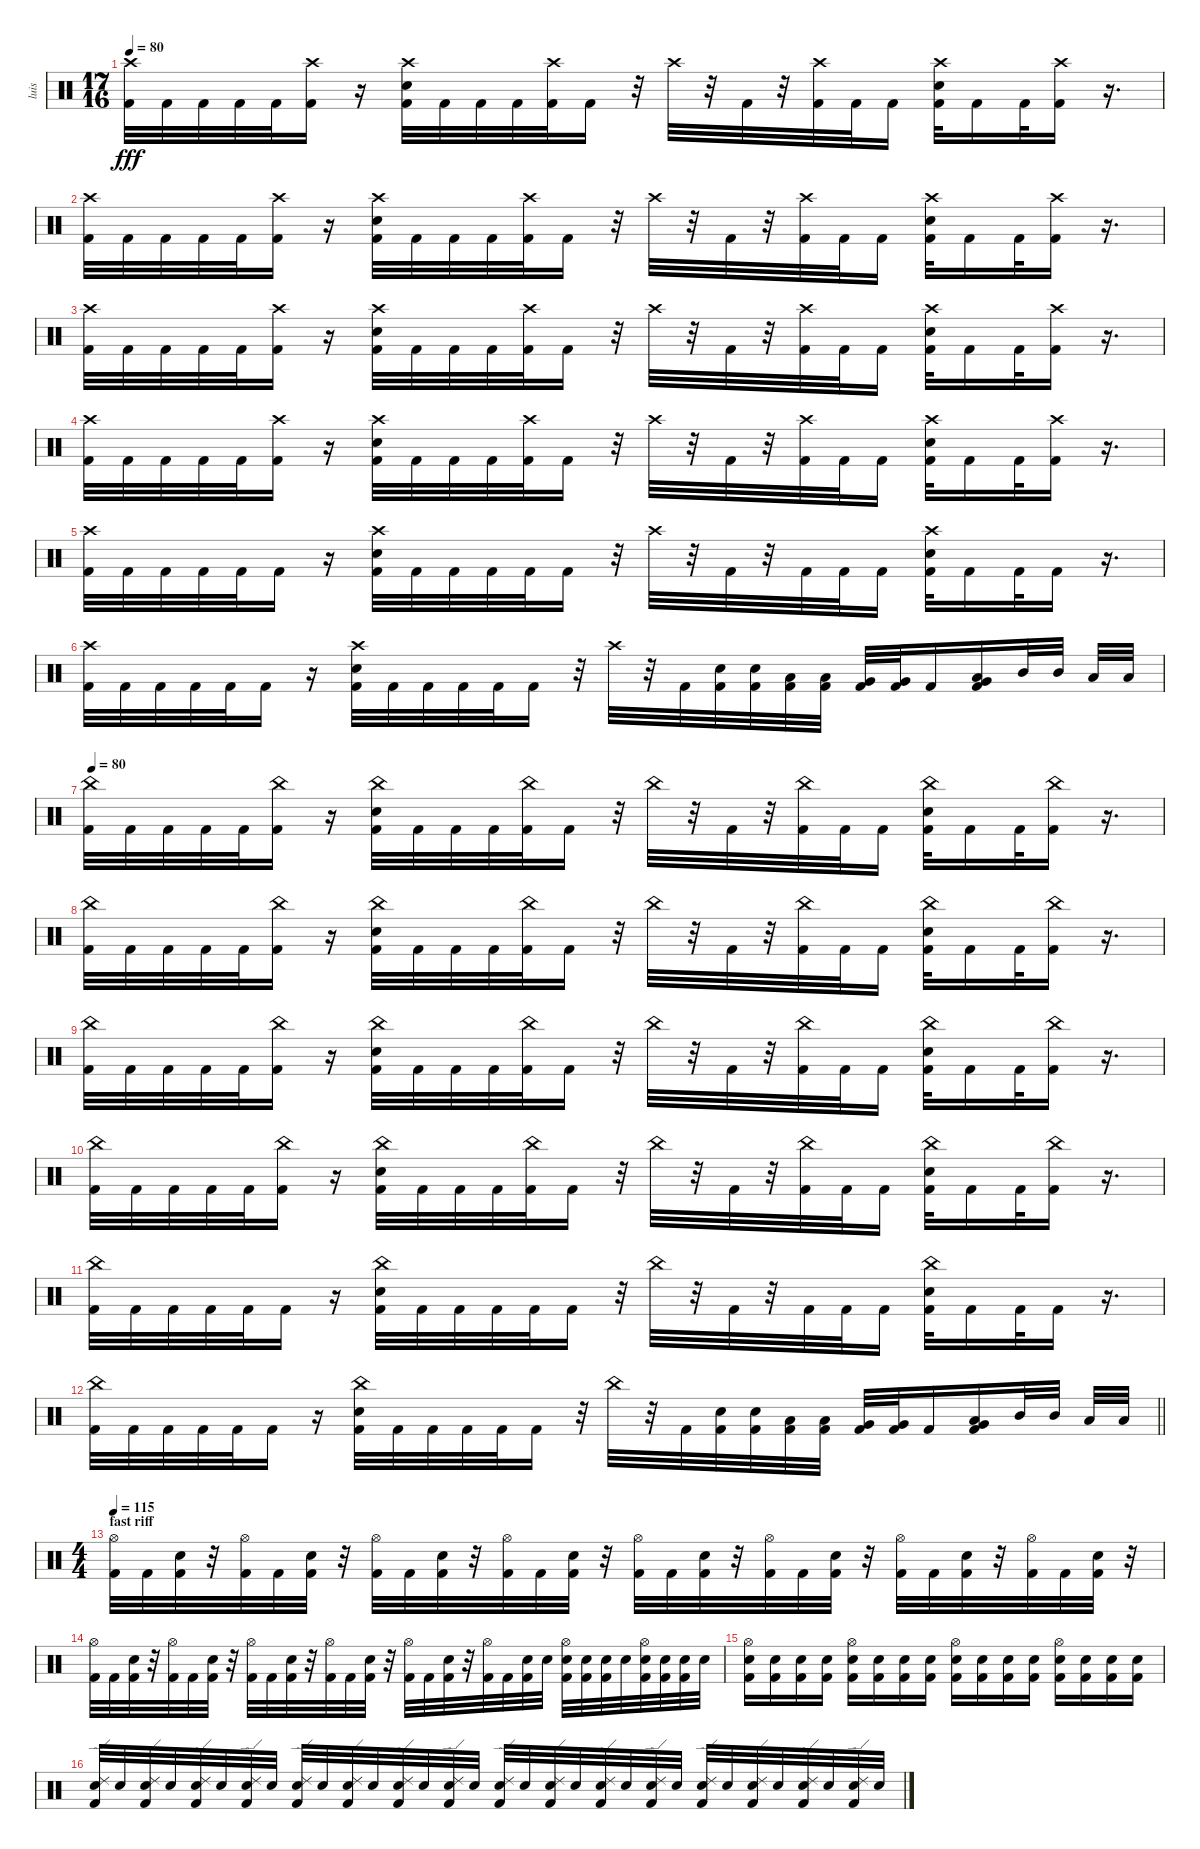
\track ("luis" "luis") {instrument percussion}
\staff {score}
\articulation defaults
\ts (17 16)
\tempo 80
\clef neutral
\ks c
("Crash high (hit)" "Kick (hit) 2").32{dy fff} "Kick (hit) 2".32 "Kick (hit) 2".32 "Kick (hit) 2".32 "Kick (hit) 2".32 ("Crash high (hit)" "Kick (hit) 2").16 r.16 ("Crash high (hit)" "Electric Snare (hit)" "Kick (hit) 2").32 "Kick (hit) 2".32 "Kick (hit) 2".32 "Kick (hit) 2".32 ("Crash high (hit)" "Kick (hit) 2").32 "Kick (hit) 2".16 r.32 "Crash high (hit)".32 r.32 "Kick (hit) 2".32 r.32 ("Crash high (hit)" "Kick (hit) 2").32 "Kick (hit) 2".32 "Kick (hit) 2".16 ("Crash high (hit)" "Electric Snare (hit)" "Kick (hit) 2").32 "Kick (hit) 2".16 "Kick (hit) 2".32 ("Crash high (hit)" "Kick (hit) 2").16 r.16{d} |
("Crash high (hit)" "Kick (hit) 2").32 "Kick (hit) 2".32 "Kick (hit) 2".32 "Kick (hit) 2".32 "Kick (hit) 2".32 ("Crash high (hit)" "Kick (hit) 2").16 r.16 ("Crash high (hit)" "Electric Snare (hit)" "Kick (hit) 2").32 "Kick (hit) 2".32 "Kick (hit) 2".32 "Kick (hit) 2".32 ("Crash high (hit)" "Kick (hit) 2").32 "Kick (hit) 2".16 r.32 "Crash high (hit)".32 r.32 "Kick (hit) 2".32 r.32 ("Crash high (hit)" "Kick (hit) 2").32 "Kick (hit) 2".32 "Kick (hit) 2".16 ("Crash high (hit)" "Electric Snare (hit)" "Kick (hit) 2").32 "Kick (hit) 2".16 "Kick (hit) 2".32 ("Crash high (hit)" "Kick (hit) 2").16 r.16{d} |
("Crash high (hit)" "Kick (hit) 2").32 "Kick (hit) 2".32 "Kick (hit) 2".32 "Kick (hit) 2".32 "Kick (hit) 2".32 ("Crash high (hit)" "Kick (hit) 2").16 r.16 ("Crash high (hit)" "Electric Snare (hit)" "Kick (hit) 2").32 "Kick (hit) 2".32 "Kick (hit) 2".32 "Kick (hit) 2".32 ("Crash high (hit)" "Kick (hit) 2").32 "Kick (hit) 2".16 r.32 "Crash high (hit)".32 r.32 "Kick (hit) 2".32 r.32 ("Crash high (hit)" "Kick (hit) 2").32 "Kick (hit) 2".32 "Kick (hit) 2".16 ("Crash high (hit)" "Electric Snare (hit)" "Kick (hit) 2").32 "Kick (hit) 2".16 "Kick (hit) 2".32 ("Crash high (hit)" "Kick (hit) 2").16 r.16{d} |
("Crash high (hit)" "Kick (hit) 2").32 "Kick (hit) 2".32 "Kick (hit) 2".32 "Kick (hit) 2".32 "Kick (hit) 2".32 ("Crash high (hit)" "Kick (hit) 2").16 r.16 ("Crash high (hit)" "Electric Snare (hit)" "Kick (hit) 2").32 "Kick (hit) 2".32 "Kick (hit) 2".32 "Kick (hit) 2".32 ("Crash high (hit)" "Kick (hit) 2").32 "Kick (hit) 2".16 r.32 "Crash high (hit)".32 r.32 "Kick (hit) 2".32 r.32 ("Crash high (hit)" "Kick (hit) 2").32 "Kick (hit) 2".32 "Kick (hit) 2".16 ("Crash high (hit)" "Electric Snare (hit)" "Kick (hit) 2").32 "Kick (hit) 2".16 "Kick (hit) 2".32 ("Crash high (hit)" "Kick (hit) 2").16 r.16{d} |
("Crash high (hit)" "Kick (hit) 2").32 "Kick (hit) 2".32 "Kick (hit) 2".32 "Kick (hit) 2".32 "Kick (hit) 2".32 "Kick (hit) 2".16 r.16 ("Crash high (hit)" "Electric Snare (hit)" "Kick (hit) 2").32 "Kick (hit) 2".32 "Kick (hit) 2".32 "Kick (hit) 2".32 "Kick (hit) 2".32 "Kick (hit) 2".16 r.32 "Crash high (hit)".32 r.32 "Kick (hit) 2".32 r.32 "Kick (hit) 2".32 "Kick (hit) 2".32 "Kick (hit) 2".16 ("Crash high (hit)" "Electric Snare (hit)" "Kick (hit) 2").32 "Kick (hit) 2".16 "Kick (hit) 2".32 "Kick (hit) 2".16 r.16{d} |
("Crash high (hit)" "Kick (hit) 2").32 "Kick (hit) 2".32 "Kick (hit) 2".32 "Kick (hit) 2".32 "Kick (hit) 2".32 "Kick (hit) 2".16 r.16 ("Crash high (hit)" "Electric Snare (hit)" "Kick (hit) 2").32 "Kick (hit) 2".32 "Kick (hit) 2".32 "Kick (hit) 2".32 "Kick (hit) 2".32 "Kick (hit) 2".16 r.32 "Crash high (hit)".32 r.32 "Kick (hit) 2".32 ("Electric Snare (hit)" "Kick (hit) 2").32 ("Electric Snare (hit)" "Kick (hit) 2").32 ("Low Tom (hit)" "Kick (hit) 2").32 ("Low Tom (hit)" "Kick (hit) 2").32 ("Very Low Tom (hit)" "Kick (hit) 2").32 ("Very Low Tom (hit)" "Kick (hit) 2").32 "Kick (hit) 2".16 ("Low Tom (hit)" "Very Low Tom (hit)" "Kick (hit) 2").16 "Mid Tom (hit)".32 "Mid Tom (hit)".32 "Low Tom (hit)".32 "Low Tom (hit)".32 |
\tempo 80
("China (hit)" "Kick (hit) 2").32 "Kick (hit) 2".32 "Kick (hit) 2".32 "Kick (hit) 2".32 "Kick (hit) 2".32 ("China (hit)" "Kick (hit) 2").16 r.16 ("China (hit)" "Electric Snare (hit)" "Kick (hit) 2").32 "Kick (hit) 2".32 "Kick (hit) 2".32 "Kick (hit) 2".32 ("China (hit)" "Kick (hit) 2").32 "Kick (hit) 2".16 r.32 "China (hit)".32 r.32 "Kick (hit) 2".32 r.32 ("China (hit)" "Kick (hit) 2").32 "Kick (hit) 2".32 "Kick (hit) 2".16 ("China (hit)" "Electric Snare (hit)" "Kick (hit) 2").32 "Kick (hit) 2".16 "Kick (hit) 2".32 ("China (hit)" "Kick (hit) 2").16 r.16{d} |
("China (hit)" "Kick (hit) 2").32 "Kick (hit) 2".32 "Kick (hit) 2".32 "Kick (hit) 2".32 "Kick (hit) 2".32 ("China (hit)" "Kick (hit) 2").16 r.16 ("China (hit)" "Electric Snare (hit)" "Kick (hit) 2").32 "Kick (hit) 2".32 "Kick (hit) 2".32 "Kick (hit) 2".32 ("China (hit)" "Kick (hit) 2").32 "Kick (hit) 2".16 r.32 "China (hit)".32 r.32 "Kick (hit) 2".32 r.32 ("China (hit)" "Kick (hit) 2").32 "Kick (hit) 2".32 "Kick (hit) 2".16 ("China (hit)" "Electric Snare (hit)" "Kick (hit) 2").32 "Kick (hit) 2".16 "Kick (hit) 2".32 ("China (hit)" "Kick (hit) 2").16 r.16{d} |
("China (hit)" "Kick (hit) 2").32 "Kick (hit) 2".32 "Kick (hit) 2".32 "Kick (hit) 2".32 "Kick (hit) 2".32 ("China (hit)" "Kick (hit) 2").16 r.16 ("China (hit)" "Electric Snare (hit)" "Kick (hit) 2").32 "Kick (hit) 2".32 "Kick (hit) 2".32 "Kick (hit) 2".32 ("China (hit)" "Kick (hit) 2").32 "Kick (hit) 2".16 r.32 "China (hit)".32 r.32 "Kick (hit) 2".32 r.32 ("China (hit)" "Kick (hit) 2").32 "Kick (hit) 2".32 "Kick (hit) 2".16 ("China (hit)" "Electric Snare (hit)" "Kick (hit) 2").32 "Kick (hit) 2".16 "Kick (hit) 2".32 ("China (hit)" "Kick (hit) 2").16 r.16{d} |
("China (hit)" "Kick (hit) 2").32 "Kick (hit) 2".32 "Kick (hit) 2".32 "Kick (hit) 2".32 "Kick (hit) 2".32 ("China (hit)" "Kick (hit) 2").16 r.16 ("China (hit)" "Electric Snare (hit)" "Kick (hit) 2").32 "Kick (hit) 2".32 "Kick (hit) 2".32 "Kick (hit) 2".32 ("China (hit)" "Kick (hit) 2").32 "Kick (hit) 2".16 r.32 "China (hit)".32 r.32 "Kick (hit) 2".32 r.32 ("China (hit)" "Kick (hit) 2").32 "Kick (hit) 2".32 "Kick (hit) 2".16 ("China (hit)" "Electric Snare (hit)" "Kick (hit) 2").32 "Kick (hit) 2".16 "Kick (hit) 2".32 ("China (hit)" "Kick (hit) 2").16 r.16{d} |
("China (hit)" "Kick (hit) 2").32 "Kick (hit) 2".32 "Kick (hit) 2".32 "Kick (hit) 2".32 "Kick (hit) 2".32 "Kick (hit) 2".16 r.16 ("China (hit)" "Electric Snare (hit)" "Kick (hit) 2").32 "Kick (hit) 2".32 "Kick (hit) 2".32 "Kick (hit) 2".32 "Kick (hit) 2".32 "Kick (hit) 2".16 r.32 "China (hit)".32 r.32 "Kick (hit) 2".32 r.32 "Kick (hit) 2".32 "Kick (hit) 2".32 "Kick (hit) 2".16 ("China (hit)" "Electric Snare (hit)" "Kick (hit) 2").32 "Kick (hit) 2".16 "Kick (hit) 2".32 "Kick (hit) 2".16 r.16{d} |
\barLineRight lightlight
("China (hit)" "Kick (hit) 2").32 "Kick (hit) 2".32 "Kick (hit) 2".32 "Kick (hit) 2".32 "Kick (hit) 2".32 "Kick (hit) 2".16 r.16 ("China (hit)" "Electric Snare (hit)" "Kick (hit) 2").32 "Kick (hit) 2".32 "Kick (hit) 2".32 "Kick (hit) 2".32 "Kick (hit) 2".32 "Kick (hit) 2".16 r.32 "China (hit)".32 r.32 "Kick (hit) 2".32 ("Electric Snare (hit)" "Kick (hit) 2").32 ("Electric Snare (hit)" "Kick (hit) 2").32 ("Low Tom (hit)" "Kick (hit) 2").32 ("Low Tom (hit)" "Kick (hit) 2").32 ("Very Low Tom (hit)" "Kick (hit) 2").32 ("Very Low Tom (hit)" "Kick (hit) 2").32 "Kick (hit) 2".16 ("Low Tom (hit)" "Very Low Tom (hit)" "Kick (hit) 2").16 "Mid Tom (hit)".32 "Mid Tom (hit)".32 "Low Tom (hit)".32 "Low Tom (hit)".32 |
\ts (4 4)
\section ("" "fast riff")
\tempo 115
("Hi-Hat (open)" "Kick (hit) 2").32 "Kick (hit) 2".32 ("Electric Snare (hit)" "Kick (hit) 2").32 r.32 ("Hi-Hat (open)" "Kick (hit) 2").32 "Kick (hit) 2".32 ("Electric Snare (hit)" "Kick (hit) 2").32 r.32 ("Hi-Hat (open)" "Kick (hit) 2").32 "Kick (hit) 2".32 ("Electric Snare (hit)" "Kick (hit) 2").32 r.32 ("Hi-Hat (open)" "Kick (hit) 2").32 "Kick (hit) 2".32 ("Electric Snare (hit)" "Kick (hit) 2").32 r.32 ("Hi-Hat (open)" "Kick (hit) 2").32 "Kick (hit) 2".32 ("Electric Snare (hit)" "Kick (hit) 2").32 r.32 ("Hi-Hat (open)" "Kick (hit) 2").32 "Kick (hit) 2".32 ("Electric Snare (hit)" "Kick (hit) 2").32 r.32 ("Hi-Hat (open)" "Kick (hit) 2").32 "Kick (hit) 2".32 ("Electric Snare (hit)" "Kick (hit) 2").32 r.32 ("Hi-Hat (open)" "Kick (hit) 2").32 "Kick (hit) 2".32 ("Electric Snare (hit)" "Kick (hit) 2").32 r.32 |
("Hi-Hat (open)" "Kick (hit) 2").32 "Kick (hit) 2".32 ("Electric Snare (hit)" "Kick (hit) 2").32 r.32 ("Hi-Hat (open)" "Kick (hit) 2").32 "Kick (hit) 2".32 ("Electric Snare (hit)" "Kick (hit) 2").32 r.32 ("Hi-Hat (open)" "Kick (hit) 2").32 "Kick (hit) 2".32 ("Electric Snare (hit)" "Kick (hit) 2").32 r.32 ("Hi-Hat (open)" "Kick (hit) 2").32 "Kick (hit) 2".32 ("Electric Snare (hit)" "Kick (hit) 2").32 r.32 ("Hi-Hat (open)" "Kick (hit) 2").32 "Kick (hit) 2".32 ("Electric Snare (hit)" "Kick (hit) 2").32 r.32 ("Hi-Hat (open)" "Kick (hit) 2").32 "Kick (hit) 2".32 ("Electric Snare (hit)" "Kick (hit) 2").32 "Electric Snare (hit)".32 ("Hi-Hat (open)" "Electric Snare (hit)" "Kick (hit) 2").32 ("Electric Snare (hit)" "Kick (hit) 2").32 ("Electric Snare (hit)" "Kick (hit) 2").32 "Electric Snare (hit)".32 ("Hi-Hat (open)" "Electric Snare (hit)" "Kick (hit) 2").32 ("Electric Snare (hit)" "Kick (hit) 2").32 ("Electric Snare (hit)" "Kick (hit) 2").32 "Electric Snare (hit)".32 |
("Hi-Hat (open)" "Electric Snare (hit)" "Kick (hit) 2").16 ("Electric Snare (hit)" "Kick (hit) 2").16 ("Electric Snare (hit)" "Kick (hit) 2").16 ("Electric Snare (hit)" "Kick (hit) 2").16 ("Hi-Hat (open)" "Electric Snare (hit)" "Kick (hit) 2").16 ("Electric Snare (hit)" "Kick (hit) 2").16 ("Electric Snare (hit)" "Kick (hit) 2").16 ("Electric Snare (hit)" "Kick (hit) 2").16 ("Hi-Hat (open)" "Electric Snare (hit)" "Kick (hit) 2").16 ("Electric Snare (hit)" "Kick (hit) 2").16 ("Electric Snare (hit)" "Kick (hit) 2").16 ("Electric Snare (hit)" "Kick (hit) 2").16 ("Hi-Hat (open)" "Electric Snare (hit)" "Kick (hit) 2").16 ("Electric Snare (hit)" "Kick (hit) 2").16 ("Electric Snare (hit)" "Kick (hit) 2").16 ("Electric Snare (hit)" "Kick (hit) 2").16 |
("Ride (edge) 2" "Electric Snare (hit)" "Kick (hit) 2").32 "Electric Snare (hit)".32 ("Ride (edge) 2" "Electric Snare (hit)" "Kick (hit) 2").32 "Electric Snare (hit)".32 ("Ride (edge) 2" "Electric Snare (hit)" "Kick (hit) 2").32 "Electric Snare (hit)".32 ("Ride (edge) 2" "Electric Snare (hit)" "Kick (hit) 2").32 "Electric Snare (hit)".32 ("Ride (edge) 2" "Electric Snare (hit)" "Kick (hit) 2").32 "Electric Snare (hit)".32 ("Ride (edge) 2" "Electric Snare (hit)" "Kick (hit) 2").32 "Electric Snare (hit)".32 ("Ride (edge) 2" "Electric Snare (hit)" "Kick (hit) 2").32 "Electric Snare (hit)".32 ("Ride (edge) 2" "Electric Snare (hit)" "Kick (hit) 2").32 "Electric Snare (hit)".32 ("Ride (edge) 2" "Electric Snare (hit)" "Kick (hit) 2").32 "Electric Snare (hit)".32 ("Ride (edge) 2" "Electric Snare (hit)" "Kick (hit) 2").32 "Electric Snare (hit)".32 ("Ride (edge) 2" "Electric Snare (hit)" "Kick (hit) 2").32 "Electric Snare (hit)".32 ("Ride (edge) 2" "Electric Snare (hit)" "Kick (hit) 2").32 "Electric Snare (hit)".32 ("Ride (edge) 2" "Electric Snare (hit)" "Kick (hit) 2").32 "Electric Snare (hit)".32 ("Ride (edge) 2" "Electric Snare (hit)" "Kick (hit) 2").32 "Electric Snare (hit)".32 ("Ride (edge) 2" "Electric Snare (hit)" "Kick (hit) 2").32 "Electric Snare (hit)".32 ("Ride (edge) 2" "Electric Snare (hit)" "Kick (hit) 2").32 "Electric Snare (hit)".32
